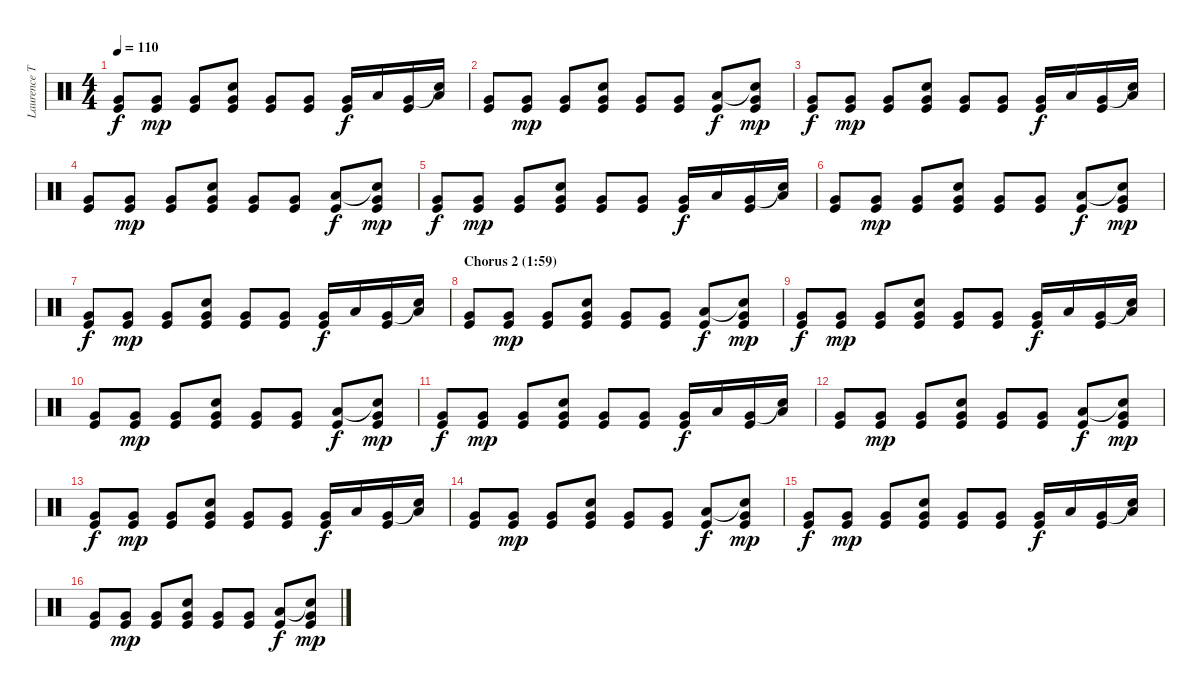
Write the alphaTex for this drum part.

\track ("Laurence Tolhurst (drums)" "Laurence T") {instrument percussion}
\staff {score}
\articulation defaults
\ts (4 4)
\tempo 110
\clef neutral
\ks c
("Very Low Tom (hit)" "Kick (hit)").8{dy f} ("Very Low Tom (hit)" "Kick (hit)").8{dy mp} ("Very Low Tom (hit)" "Kick (hit)").8 ("Snare (hit) 2" "Very Low Tom (hit)" "Kick (hit)").8 ("Very Low Tom (hit)" "Kick (hit)").8 ("Very Low Tom (hit)" "Kick (hit)").8 ("Very Low Tom (hit)" "Kick (hit)").16{dy f} "Low Tom (hit)".16 ("Very Low Tom (hit)" "Kick (hit)").16 ("Snare (hit)"{t} "Low Tom (hit)").16 |
("Very Low Tom (hit)" "Kick (hit)").8 ("Very Low Tom (hit)" "Kick (hit)").8{dy mp} ("Very Low Tom (hit)" "Kick (hit)").8 ("Snare (hit) 2" "Very Low Tom (hit)" "Kick (hit)").8 ("Very Low Tom (hit)" "Kick (hit)").8 ("Very Low Tom (hit)" "Kick (hit)").8 ("Low Tom (hit)" "Kick (hit)").8{dy f} ("Snare (hit)"{t} "Very Low Tom (hit)" "Kick (hit)").8{dy mp} |
("Very Low Tom (hit)" "Kick (hit)").8{dy f} ("Very Low Tom (hit)" "Kick (hit)").8{dy mp} ("Very Low Tom (hit)" "Kick (hit)").8 ("Snare (hit) 2" "Very Low Tom (hit)" "Kick (hit)").8 ("Very Low Tom (hit)" "Kick (hit)").8 ("Very Low Tom (hit)" "Kick (hit)").8 ("Very Low Tom (hit)" "Kick (hit)").16{dy f} "Low Tom (hit)".16 ("Very Low Tom (hit)" "Kick (hit)").16 ("Snare (hit)"{t} "Low Tom (hit)").16 |
("Very Low Tom (hit)" "Kick (hit)").8 ("Very Low Tom (hit)" "Kick (hit)").8{dy mp} ("Very Low Tom (hit)" "Kick (hit)").8 ("Snare (hit) 2" "Very Low Tom (hit)" "Kick (hit)").8 ("Very Low Tom (hit)" "Kick (hit)").8 ("Very Low Tom (hit)" "Kick (hit)").8 ("Low Tom (hit)" "Kick (hit)").8{dy f} ("Snare (hit)"{t} "Very Low Tom (hit)" "Kick (hit)").8{dy mp} |
("Very Low Tom (hit)" "Kick (hit)").8{dy f} ("Very Low Tom (hit)" "Kick (hit)").8{dy mp} ("Very Low Tom (hit)" "Kick (hit)").8 ("Snare (hit) 2" "Very Low Tom (hit)" "Kick (hit)").8 ("Very Low Tom (hit)" "Kick (hit)").8 ("Very Low Tom (hit)" "Kick (hit)").8 ("Very Low Tom (hit)" "Kick (hit)").16{dy f} "Low Tom (hit)".16 ("Very Low Tom (hit)" "Kick (hit)").16 ("Snare (hit)"{t} "Low Tom (hit)").16 |
("Very Low Tom (hit)" "Kick (hit)").8 ("Very Low Tom (hit)" "Kick (hit)").8{dy mp} ("Very Low Tom (hit)" "Kick (hit)").8 ("Snare (hit) 2" "Very Low Tom (hit)" "Kick (hit)").8 ("Very Low Tom (hit)" "Kick (hit)").8 ("Very Low Tom (hit)" "Kick (hit)").8 ("Low Tom (hit)" "Kick (hit)").8{dy f} ("Snare (hit)"{t} "Very Low Tom (hit)" "Kick (hit)").8{dy mp} |
("Very Low Tom (hit)" "Kick (hit)").8{dy f} ("Very Low Tom (hit)" "Kick (hit)").8{dy mp} ("Very Low Tom (hit)" "Kick (hit)").8 ("Snare (hit) 2" "Very Low Tom (hit)" "Kick (hit)").8 ("Very Low Tom (hit)" "Kick (hit)").8 ("Very Low Tom (hit)" "Kick (hit)").8 ("Very Low Tom (hit)" "Kick (hit)").16{dy f} "Low Tom (hit)".16 ("Very Low Tom (hit)" "Kick (hit)").16 ("Snare (hit)"{t} "Low Tom (hit)").16 |
\section ("" "Chorus 2 (1:59)")
("Very Low Tom (hit)" "Kick (hit)").8 ("Very Low Tom (hit)" "Kick (hit)").8{dy mp} ("Very Low Tom (hit)" "Kick (hit)").8 ("Snare (hit) 2" "Very Low Tom (hit)" "Kick (hit)").8 ("Very Low Tom (hit)" "Kick (hit)").8 ("Very Low Tom (hit)" "Kick (hit)").8 ("Low Tom (hit)" "Kick (hit)").8{dy f} ("Snare (hit)"{t} "Very Low Tom (hit)" "Kick (hit)").8{dy mp} |
("Very Low Tom (hit)" "Kick (hit)").8{dy f} ("Very Low Tom (hit)" "Kick (hit)").8{dy mp} ("Very Low Tom (hit)" "Kick (hit)").8 ("Snare (hit) 2" "Very Low Tom (hit)" "Kick (hit)").8 ("Very Low Tom (hit)" "Kick (hit)").8 ("Very Low Tom (hit)" "Kick (hit)").8 ("Very Low Tom (hit)" "Kick (hit)").16{dy f} "Low Tom (hit)".16 ("Very Low Tom (hit)" "Kick (hit)").16 ("Snare (hit)"{t} "Low Tom (hit)").16 |
("Very Low Tom (hit)" "Kick (hit)").8 ("Very Low Tom (hit)" "Kick (hit)").8{dy mp} ("Very Low Tom (hit)" "Kick (hit)").8 ("Snare (hit) 2" "Very Low Tom (hit)" "Kick (hit)").8 ("Very Low Tom (hit)" "Kick (hit)").8 ("Very Low Tom (hit)" "Kick (hit)").8 ("Low Tom (hit)" "Kick (hit)").8{dy f} ("Snare (hit)"{t} "Very Low Tom (hit)" "Kick (hit)").8{dy mp} |
("Very Low Tom (hit)" "Kick (hit)").8{dy f} ("Very Low Tom (hit)" "Kick (hit)").8{dy mp} ("Very Low Tom (hit)" "Kick (hit)").8 ("Snare (hit) 2" "Very Low Tom (hit)" "Kick (hit)").8 ("Very Low Tom (hit)" "Kick (hit)").8 ("Very Low Tom (hit)" "Kick (hit)").8 ("Very Low Tom (hit)" "Kick (hit)").16{dy f} "Low Tom (hit)".16 ("Very Low Tom (hit)" "Kick (hit)").16 ("Snare (hit)"{t} "Low Tom (hit)").16 |
("Very Low Tom (hit)" "Kick (hit)").8 ("Very Low Tom (hit)" "Kick (hit)").8{dy mp} ("Very Low Tom (hit)" "Kick (hit)").8 ("Snare (hit) 2" "Very Low Tom (hit)" "Kick (hit)").8 ("Very Low Tom (hit)" "Kick (hit)").8 ("Very Low Tom (hit)" "Kick (hit)").8 ("Low Tom (hit)" "Kick (hit)").8{dy f} ("Snare (hit)"{t} "Very Low Tom (hit)" "Kick (hit)").8{dy mp} |
("Very Low Tom (hit)" "Kick (hit)").8{dy f} ("Very Low Tom (hit)" "Kick (hit)").8{dy mp} ("Very Low Tom (hit)" "Kick (hit)").8 ("Snare (hit) 2" "Very Low Tom (hit)" "Kick (hit)").8 ("Very Low Tom (hit)" "Kick (hit)").8 ("Very Low Tom (hit)" "Kick (hit)").8 ("Very Low Tom (hit)" "Kick (hit)").16{dy f} "Low Tom (hit)".16 ("Very Low Tom (hit)" "Kick (hit)").16 ("Snare (hit)"{t} "Low Tom (hit)").16 |
("Very Low Tom (hit)" "Kick (hit)").8 ("Very Low Tom (hit)" "Kick (hit)").8{dy mp} ("Very Low Tom (hit)" "Kick (hit)").8 ("Snare (hit) 2" "Very Low Tom (hit)" "Kick (hit)").8 ("Very Low Tom (hit)" "Kick (hit)").8 ("Very Low Tom (hit)" "Kick (hit)").8 ("Low Tom (hit)" "Kick (hit)").8{dy f} ("Snare (hit)"{t} "Very Low Tom (hit)" "Kick (hit)").8{dy mp} |
("Very Low Tom (hit)" "Kick (hit)").8{dy f} ("Very Low Tom (hit)" "Kick (hit)").8{dy mp} ("Very Low Tom (hit)" "Kick (hit)").8 ("Snare (hit) 2" "Very Low Tom (hit)" "Kick (hit)").8 ("Very Low Tom (hit)" "Kick (hit)").8 ("Very Low Tom (hit)" "Kick (hit)").8 ("Very Low Tom (hit)" "Kick (hit)").16{dy f} "Low Tom (hit)".16 ("Very Low Tom (hit)" "Kick (hit)").16 ("Snare (hit)"{t} "Low Tom (hit)").16 |
("Very Low Tom (hit)" "Kick (hit)").8 ("Very Low Tom (hit)" "Kick (hit)").8{dy mp} ("Very Low Tom (hit)" "Kick (hit)").8 ("Snare (hit) 2" "Very Low Tom (hit)" "Kick (hit)").8 ("Very Low Tom (hit)" "Kick (hit)").8 ("Very Low Tom (hit)" "Kick (hit)").8 ("Low Tom (hit)" "Kick (hit)").8{dy f} ("Snare (hit)"{t} "Very Low Tom (hit)" "Kick (hit)").8{dy mp}
